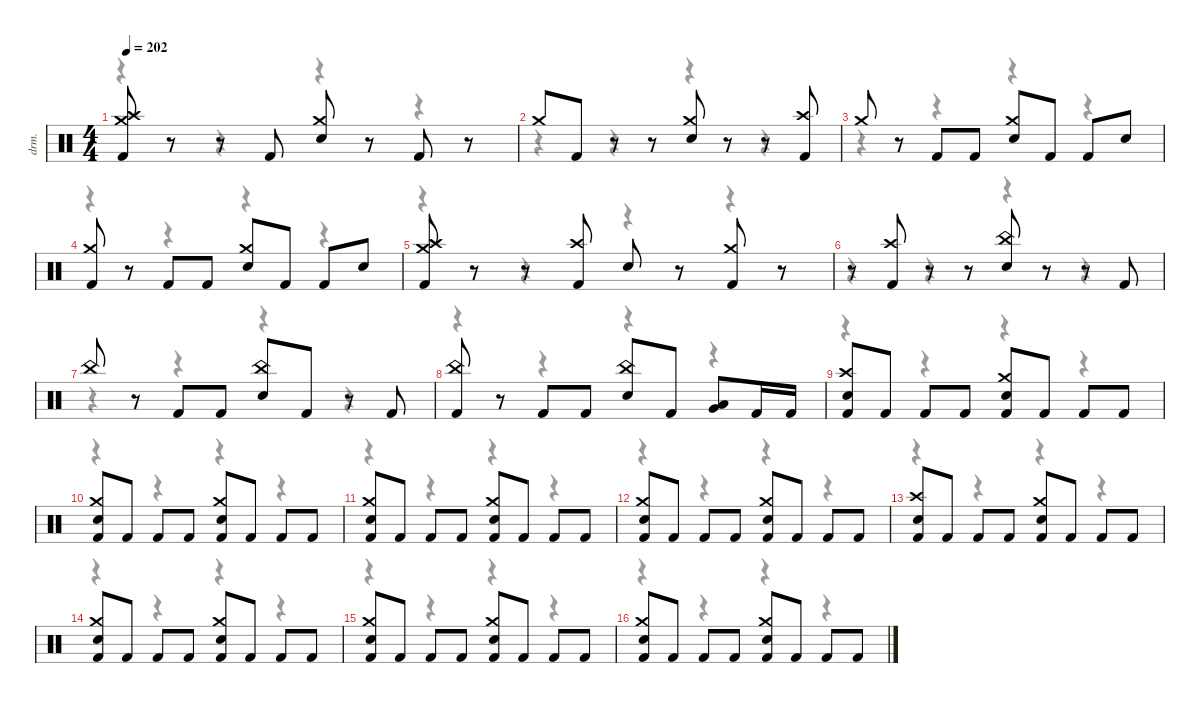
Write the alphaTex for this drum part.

\defaultSystemsLayout 4
\hideDynamics
\bracketExtendMode nobrackets
\track ("Alex Ballew" "drm.") {instrument percussion}
\staff {score}
\articulation defaults
\voice
\ts (4 4)
\tempo 202
\clef neutral
\ks c
("Crash medium (hit)" "Crash high (hit)" "Kick (hit) 2").8{dy f beam Up} r.8{beam Up} r.8{beam Up} "Kick (hit) 2".8{beam Up} ("Crash medium (hit)" "Snare (hit) 2").8{beam Up} r.8{beam Up} "Kick (hit) 2".8{beam Up} r.8{beam Up} |
"Crash medium (hit)".8{beam Up} "Kick (hit) 2".8{beam Up} r.8{beam Up} r.8{beam Up} ("Crash medium (hit)" "Snare (hit) 2").8{beam Up} r.8{beam Up} r.8{beam Up} ("Crash high (hit)" "Kick (hit) 2").8{beam Up} |
"Crash medium (hit)".8{beam Up} r.8{beam Up} "Kick (hit) 2".8{beam Up} "Kick (hit) 2".8{beam Up} ("Crash medium (hit)" "Snare (hit) 2").8{beam Up} "Kick (hit) 2".8{beam Up} "Kick (hit) 2".8{beam Up} "Snare (hit) 2".8{beam Up} |
("Crash medium (hit)" "Kick (hit) 2").8{beam Up} r.8{beam Up} "Kick (hit) 2".8{beam Up} "Kick (hit) 2".8{beam Up} ("Crash medium (hit)" "Snare (hit) 2").8{beam Up} "Kick (hit) 2".8{beam Up} "Kick (hit) 2".8{beam Up} "Snare (hit) 2".8{beam Up} |
("Crash medium (hit)" "Crash high (hit)" "Kick (hit) 2").8{beam Up} r.8{beam Up} r.8{beam Up} ("Crash high (hit)" "Kick (hit) 2").8{beam Up} "Snare (hit) 2".8{beam Up} r.8{beam Up} ("Crash medium (hit)" "Kick (hit) 2").8{beam Up} r.8{beam Up} |
r.8{beam Up} ("Crash high (hit)" "Kick (hit) 2").8{beam Up} r.8{beam Up} r.8{beam Up} ("China (hit)" "Snare (hit) 2").8{beam Up} r.8{beam Up} r.8{beam Up} "Kick (hit) 2".8{beam Up} |
"China (hit)".8{beam Up} r.8{beam Up} "Kick (hit) 2".8{beam Up} "Kick (hit) 2".8{beam Up} ("China (hit)" "Snare (hit) 2").8{beam Up} "Kick (hit) 2".8{beam Up} r.8{beam Up} "Kick (hit) 2".8{beam Up} |
("China (hit)" "Kick (hit) 2").8{beam Up} r.8{beam Up} "Kick (hit) 2".8{beam Up} "Kick (hit) 2".8{beam Up} ("China (hit)" "Snare (hit) 2").8{beam Up} "Kick (hit) 2".8{beam Up} ("Low Tom (hit)" "Very Low Tom (hit)").8{beam Up} "Kick (hit) 2".16{beam Up} "Kick (hit) 2".16{beam Up} |
("Crash high (hit)" "Snare (hit) 2" "Kick (hit) 2").8{beam Up} "Kick (hit) 2".8{beam Up} "Kick (hit) 2".8{beam Up} "Kick (hit) 2".8{beam Up} ("Crash medium (hit)" "Snare (hit) 2" "Kick (hit) 2").8{beam Up} "Kick (hit) 2".8{beam Up} "Kick (hit) 2".8{beam Up} "Kick (hit) 2".8{beam Up} |
("Crash medium (hit)" "Snare (hit) 2" "Kick (hit) 2").8{beam Up} "Kick (hit) 2".8{beam Up} "Kick (hit) 2".8{beam Up} "Kick (hit) 2".8{beam Up} ("Crash medium (hit)" "Snare (hit) 2" "Kick (hit) 2").8{beam Up} "Kick (hit) 2".8{beam Up} "Kick (hit) 2".8{beam Up} "Kick (hit) 2".8{beam Up} |
("Crash medium (hit)" "Snare (hit) 2" "Kick (hit) 2").8{beam Up} "Kick (hit) 2".8{beam Up} "Kick (hit) 2".8{beam Up} "Kick (hit) 2".8{beam Up} ("Crash medium (hit)" "Snare (hit) 2" "Kick (hit) 2").8{beam Up} "Kick (hit) 2".8{beam Up} "Kick (hit) 2".8{beam Up} "Kick (hit) 2".8{beam Up} |
("Crash medium (hit)" "Snare (hit) 2" "Kick (hit) 2").8{beam Up} "Kick (hit) 2".8{beam Up} "Kick (hit) 2".8{beam Up} "Kick (hit) 2".8{beam Up} ("Crash medium (hit)" "Snare (hit) 2" "Kick (hit) 2").8{beam Up} "Kick (hit) 2".8{beam Up} "Kick (hit) 2".8{beam Up} "Kick (hit) 2".8{beam Up} |
("Crash high (hit)" "Snare (hit) 2" "Kick (hit) 2").8{beam Up} "Kick (hit) 2".8{beam Up} "Kick (hit) 2".8{beam Up} "Kick (hit) 2".8{beam Up} ("Crash medium (hit)" "Snare (hit) 2" "Kick (hit) 2").8{beam Up} "Kick (hit) 2".8{beam Up} "Kick (hit) 2".8{beam Up} "Kick (hit) 2".8{beam Up} |
("Crash medium (hit)" "Snare (hit) 2" "Kick (hit) 2").8{beam Up} "Kick (hit) 2".8{beam Up} "Kick (hit) 2".8{beam Up} "Kick (hit) 2".8{beam Up} ("Crash medium (hit)" "Snare (hit) 2" "Kick (hit) 2").8{beam Up} "Kick (hit) 2".8{beam Up} "Kick (hit) 2".8{beam Up} "Kick (hit) 2".8{beam Up} |
("Crash medium (hit)" "Snare (hit) 2" "Kick (hit) 2").8{beam Up} "Kick (hit) 2".8{beam Up} "Kick (hit) 2".8{beam Up} "Kick (hit) 2".8{beam Up} ("Crash medium (hit)" "Snare (hit) 2" "Kick (hit) 2").8{beam Up} "Kick (hit) 2".8{beam Up} "Kick (hit) 2".8{beam Up} "Kick (hit) 2".8{beam Up} |
("Crash medium (hit)" "Snare (hit) 2" "Kick (hit) 2").8{beam Up} "Kick (hit) 2".8{beam Up} "Kick (hit) 2".8{beam Up} "Kick (hit) 2".8{beam Up} ("Crash medium (hit)" "Snare (hit) 2" "Kick (hit) 2").8{beam Up} "Kick (hit) 2".8{beam Up} "Kick (hit) 2".8{beam Up} "Kick (hit) 2".8{beam Up}
\voice
\clef neutral
\ottava regular
\simile none
\ks c
r.4{dy mf beam Down} r.4{beam Down} r.4{beam Down} r.4{beam Down} |
r.4{beam Down} r.4{beam Down} r.4{beam Down} r.4{beam Down} |
r.4{beam Down} r.4{beam Down} r.4{beam Down} r.4{beam Down} |
r.4{beam Down} r.4{beam Down} r.4{beam Down} r.4{beam Down} |
r.4{beam Down} r.4{beam Down} r.4{beam Down} r.4{beam Down} |
r.4{beam Down} r.4{beam Down} r.4{beam Down} r.4{beam Down} |
r.4{beam Down} r.4{beam Down} r.4{beam Down} r.4{beam Down} |
r.4{beam Down} r.4{beam Down} r.4{beam Down} r.4{beam Down} |
r.4{beam Down} r.4{beam Down} r.4{beam Down} r.4{beam Down} |
r.4{beam Down} r.4{beam Down} r.4{beam Down} r.4{beam Down} |
r.4{beam Down} r.4{beam Down} r.4{beam Down} r.4{beam Down} |
r.4{beam Down} r.4{beam Down} r.4{beam Down} r.4{beam Down} |
r.4{beam Down} r.4{beam Down} r.4{beam Down} r.4{beam Down} |
r.4{beam Down} r.4{beam Down} r.4{beam Down} r.4{beam Down} |
r.4{beam Down} r.4{beam Down} r.4{beam Down} r.4{beam Down} |
r.4{beam Down} r.4{beam Down} r.4{beam Down} r.4{beam Down}
